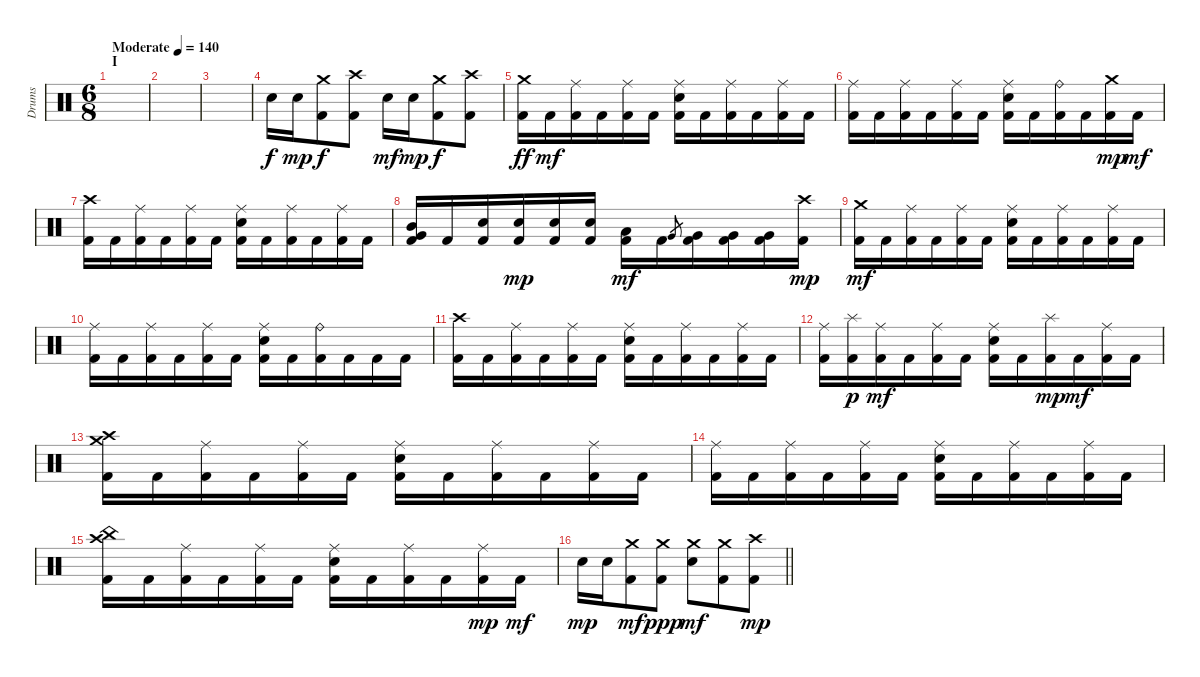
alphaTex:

\track ("Drums" "Drums") {instrument percussion}
\staff {score}
\articulation defaults
\ts (6 8)
\section ("" "I")
\tempo (140 "Moderate")
\clef neutral
\ks c
|
|
|
"Electric Snare (hit)".16 "Electric Snare (hit)".16{dy mp} ("Kick (hit) 2" "Crash medium (hit)").8{dy f} ("Kick (hit) 2" "Crash high (hit)").8 "Electric Snare (hit)".16{dy mf} "Electric Snare (hit)".16{dy mp} ("Kick (hit) 2" "Crash medium (hit)").8{dy f} ("Kick (hit) 2" "Crash high (hit)").8 |
("Kick (hit) 2" "Crash medium (hit)").16{dy ff} "Kick (hit) 2".16{dy mf} ("Kick (hit) 2" "Ride (middle)").16 "Kick (hit) 2".16 ("Kick (hit) 2" "Ride (middle)").16 "Kick (hit) 2".16 ("Kick (hit) 2" "Electric Snare (hit)" "Ride (middle)").16 "Kick (hit) 2".16 ("Kick (hit) 2" "Ride (middle)").16 "Kick (hit) 2".16 ("Kick (hit) 2" "Ride (middle)").16 "Kick (hit) 2".16 |
("Kick (hit) 2" "Ride (middle)").16 "Kick (hit) 2".16 ("Kick (hit) 2" "Ride (middle)").16 "Kick (hit) 2".16 ("Kick (hit) 2" "Ride (middle)").16 "Kick (hit) 2".16 ("Kick (hit) 2" "Electric Snare (hit)" "Ride (middle)").16 "Kick (hit) 2".16 ("Kick (hit) 2" "Ride (bell)").16 "Kick (hit) 2".16 ("Kick (hit) 2" "Crash medium (hit)").16{dy mp} "Kick (hit) 2".16{dy mf} |
("Kick (hit) 2" "Crash high (hit)").16 "Kick (hit) 2".16 ("Kick (hit) 2" "Ride (middle)").16 "Kick (hit) 2".16 ("Kick (hit) 2" "Ride (middle)").16 "Kick (hit) 2".16 ("Kick (hit) 2" "Electric Snare (hit)" "Ride (middle)").16 "Kick (hit) 2".16 ("Kick (hit) 2" "Ride (middle)").16 "Kick (hit) 2".16 ("Kick (hit) 2" "Ride (middle)").16 "Kick (hit) 2".16 |
("Kick (hit) 2" "Very Low Tom (hit)" "Mid Tom (hit)").16 "Kick (hit) 2".16 ("Kick (hit) 2" "Electric Snare (hit)").16 ("Kick (hit) 2" "Electric Snare (hit)").16{dy mp} ("Kick (hit) 2" "Electric Snare (hit)").16 ("Kick (hit) 2" "Electric Snare (hit)").16 ("Kick (hit) 2" "Low Tom (hit)").16{dy mf} "Kick (hit) 2".16 "Very Low Tom (hit)".8{gr} ("Kick (hit) 2" "Very Low Tom (hit)").16 ("Kick (hit) 2" "Very Low Tom (hit)").16 ("Kick (hit) 2" "Very Low Tom (hit)").16 ("Kick (hit) 2" "Crash high (hit)").16{dy mp} |
("Kick (hit) 2" "Crash medium (hit)").16{dy mf} "Kick (hit) 2".16 ("Kick (hit) 2" "Ride (middle)").16 "Kick (hit) 2".16 ("Kick (hit) 2" "Ride (middle)").16 "Kick (hit) 2".16 ("Kick (hit) 2" "Electric Snare (hit)" "Ride (middle)").16 "Kick (hit) 2".16 ("Kick (hit) 2" "Ride (middle)").16 "Kick (hit) 2".16 ("Kick (hit) 2" "Ride (middle)").16 "Kick (hit) 2".16 |
("Kick (hit) 2" "Ride (middle)").16 "Kick (hit) 2".16 ("Kick (hit) 2" "Ride (middle)").16 "Kick (hit) 2".16 ("Kick (hit) 2" "Ride (middle)").16 "Kick (hit) 2".16 ("Kick (hit) 2" "Electric Snare (hit)" "Ride (middle)").16 "Kick (hit) 2".16 ("Kick (hit) 2" "Ride (bell)").16 "Kick (hit) 2".16 "Kick (hit) 2".16 "Kick (hit) 2".16 |
("Kick (hit) 2" "Crash high (hit)").16 "Kick (hit) 2".16 ("Kick (hit) 2" "Ride (middle)").16 "Kick (hit) 2".16 ("Kick (hit) 2" "Ride (middle)").16 "Kick (hit) 2".16 ("Kick (hit) 2" "Electric Snare (hit)" "Ride (middle)").16 "Kick (hit) 2".16 ("Kick (hit) 2" "Ride (middle)").16 "Kick (hit) 2".16 ("Kick (hit) 2" "Ride (middle)").16 "Kick (hit) 2".16 |
("Kick (hit) 2" "Ride (middle)").16 ("Kick (hit) 2" "Splash (hit)").16{dy p} ("Kick (hit) 2" "Ride (middle)").16{dy mf} "Kick (hit) 2".16 ("Kick (hit) 2" "Ride (middle)").16 "Kick (hit) 2".16 ("Kick (hit) 2" "Electric Snare (hit)" "Ride (middle)").16 "Kick (hit) 2".16 ("Kick (hit) 2" "Splash (hit)").16{dy mp} "Kick (hit) 2".16{dy mf} ("Kick (hit) 2" "Ride (middle)").16 "Kick (hit) 2".16 |
("Kick (hit) 2" "Crash high (hit)" "Crash medium (hit)").16 "Kick (hit) 2".16 ("Kick (hit) 2" "Ride (middle)").16 "Kick (hit) 2".16 ("Kick (hit) 2" "Ride (middle)").16 "Kick (hit) 2".16 ("Kick (hit) 2" "Electric Snare (hit)" "Ride (middle)").16 "Kick (hit) 2".16 ("Kick (hit) 2" "Ride (middle)").16 "Kick (hit) 2".16 ("Kick (hit) 2" "Ride (middle)").16 "Kick (hit) 2".16 |
("Kick (hit) 2" "Ride (middle)").16 "Kick (hit) 2".16 ("Kick (hit) 2" "Ride (middle)").16 "Kick (hit) 2".16 ("Kick (hit) 2" "Ride (middle)").16 "Kick (hit) 2".16 ("Kick (hit) 2" "Electric Snare (hit)" "Ride (middle)").16 "Kick (hit) 2".16 ("Kick (hit) 2" "Ride (middle)").16 "Kick (hit) 2".16 ("Kick (hit) 2" "Ride (middle)").16 "Kick (hit) 2".16 |
("Kick (hit) 2" "Crash high (hit)" "China (hit)").16 "Kick (hit) 2".16 ("Kick (hit) 2" "Ride (middle)").16 "Kick (hit) 2".16 ("Kick (hit) 2" "Ride (middle)").16 "Kick (hit) 2".16 ("Kick (hit) 2" "Electric Snare (hit)" "Ride (middle)").16 "Kick (hit) 2".16 ("Kick (hit) 2" "Ride (middle)").16 "Kick (hit) 2".16 ("Kick (hit) 2" "Ride (middle)").16{dy mp} "Kick (hit) 2".16{dy mf} |
\barLineRight lightlight "Electric Snare (hit)".16{dy mp} "Electric Snare (hit)".16
("Kick (hit) 2" "Crash medium (hit)").8{dy mf} ("Kick (hit) 2" "Crash medium (hit)").8{dy ppp} ("Electric Snare (hit)" "Crash medium (hit)").8{dy mf} ("Kick (hit) 2" "Crash medium (hit)").8 ("Kick (hit) 2" "Crash high (hit)").8{dy mp}
